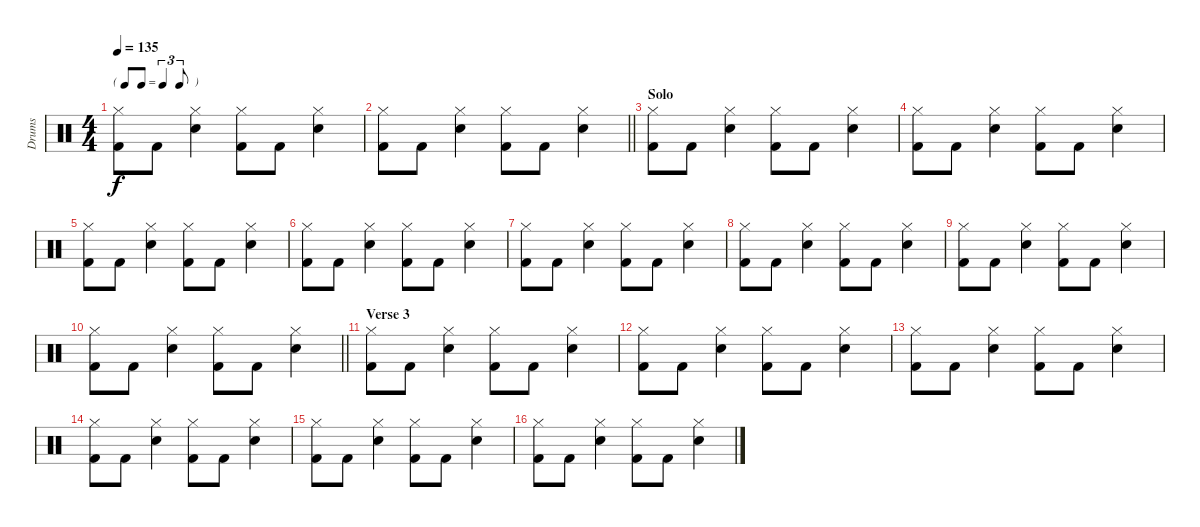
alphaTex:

\track ("Drums" "Drums") {instrument percussion}
\staff {score}
\articulation defaults
\ts (4 4)
\tf triplet8th
\tempo 135
\clef neutral
\ks c
("Hi-Hat (closed)" "Kick (hit) 2").8{dy f} "Kick (hit) 2".8 ("Hi-Hat (closed)" "Snare (hit) 2").4 ("Hi-Hat (closed)" "Kick (hit) 2").8 "Kick (hit) 2".8 ("Hi-Hat (closed)" "Snare (hit) 2").4 |
\barLineRight lightlight
("Hi-Hat (closed)" "Kick (hit) 2").8 "Kick (hit) 2".8 ("Hi-Hat (closed)" "Snare (hit) 2").4 ("Hi-Hat (closed)" "Kick (hit) 2").8 "Kick (hit) 2".8 ("Hi-Hat (closed)" "Snare (hit) 2").4 |
\section ("" "Solo")
("Hi-Hat (closed)" "Kick (hit) 2").8 "Kick (hit) 2".8 ("Hi-Hat (closed)" "Snare (hit) 2").4 ("Hi-Hat (closed)" "Kick (hit) 2").8 "Kick (hit) 2".8 ("Hi-Hat (closed)" "Snare (hit) 2").4 |
("Hi-Hat (closed)" "Kick (hit) 2").8 "Kick (hit) 2".8 ("Hi-Hat (closed)" "Snare (hit) 2").4 ("Hi-Hat (closed)" "Kick (hit) 2").8 "Kick (hit) 2".8 ("Hi-Hat (closed)" "Snare (hit) 2").4 |
("Hi-Hat (closed)" "Kick (hit) 2").8 "Kick (hit) 2".8 ("Hi-Hat (closed)" "Snare (hit) 2").4 ("Hi-Hat (closed)" "Kick (hit) 2").8 "Kick (hit) 2".8 ("Hi-Hat (closed)" "Snare (hit) 2").4 |
("Hi-Hat (closed)" "Kick (hit) 2").8 "Kick (hit) 2".8 ("Hi-Hat (closed)" "Snare (hit) 2").4 ("Hi-Hat (closed)" "Kick (hit) 2").8 "Kick (hit) 2".8 ("Hi-Hat (closed)" "Snare (hit) 2").4 |
("Hi-Hat (closed)" "Kick (hit) 2").8 "Kick (hit) 2".8 ("Hi-Hat (closed)" "Snare (hit) 2").4 ("Hi-Hat (closed)" "Kick (hit) 2").8 "Kick (hit) 2".8 ("Hi-Hat (closed)" "Snare (hit) 2").4 |
("Hi-Hat (closed)" "Kick (hit) 2").8 "Kick (hit) 2".8 ("Hi-Hat (closed)" "Snare (hit) 2").4 ("Hi-Hat (closed)" "Kick (hit) 2").8 "Kick (hit) 2".8 ("Hi-Hat (closed)" "Snare (hit) 2").4 |
("Hi-Hat (closed)" "Kick (hit) 2").8 "Kick (hit) 2".8 ("Hi-Hat (closed)" "Snare (hit) 2").4 ("Hi-Hat (closed)" "Kick (hit) 2").8 "Kick (hit) 2".8 ("Hi-Hat (closed)" "Snare (hit) 2").4 |
\barLineRight lightlight
("Hi-Hat (closed)" "Kick (hit) 2").8 "Kick (hit) 2".8 ("Hi-Hat (closed)" "Snare (hit) 2").4 ("Hi-Hat (closed)" "Kick (hit) 2").8 "Kick (hit) 2".8 ("Hi-Hat (closed)" "Snare (hit) 2").4 |
\section ("" "Verse 3")
("Hi-Hat (closed)" "Kick (hit) 2").8 "Kick (hit) 2".8 ("Hi-Hat (closed)" "Snare (hit) 2").4 ("Hi-Hat (closed)" "Kick (hit) 2").8 "Kick (hit) 2".8 ("Hi-Hat (closed)" "Snare (hit) 2").4 |
("Hi-Hat (closed)" "Kick (hit) 2").8 "Kick (hit) 2".8 ("Hi-Hat (closed)" "Snare (hit) 2").4 ("Hi-Hat (closed)" "Kick (hit) 2").8 "Kick (hit) 2".8 ("Hi-Hat (closed)" "Snare (hit) 2").4 |
("Hi-Hat (closed)" "Kick (hit) 2").8 "Kick (hit) 2".8 ("Hi-Hat (closed)" "Snare (hit) 2").4 ("Hi-Hat (closed)" "Kick (hit) 2").8 "Kick (hit) 2".8 ("Hi-Hat (closed)" "Snare (hit) 2").4 |
("Hi-Hat (closed)" "Kick (hit) 2").8 "Kick (hit) 2".8 ("Hi-Hat (closed)" "Snare (hit) 2").4 ("Hi-Hat (closed)" "Kick (hit) 2").8 "Kick (hit) 2".8 ("Hi-Hat (closed)" "Snare (hit) 2").4 |
("Hi-Hat (closed)" "Kick (hit) 2").8 "Kick (hit) 2".8 ("Hi-Hat (closed)" "Snare (hit) 2").4 ("Hi-Hat (closed)" "Kick (hit) 2").8 "Kick (hit) 2".8 ("Hi-Hat (closed)" "Snare (hit) 2").4 |
("Hi-Hat (closed)" "Kick (hit) 2").8 "Kick (hit) 2".8 ("Hi-Hat (closed)" "Snare (hit) 2").4 ("Hi-Hat (closed)" "Kick (hit) 2").8 "Kick (hit) 2".8 ("Hi-Hat (closed)" "Snare (hit) 2").4
